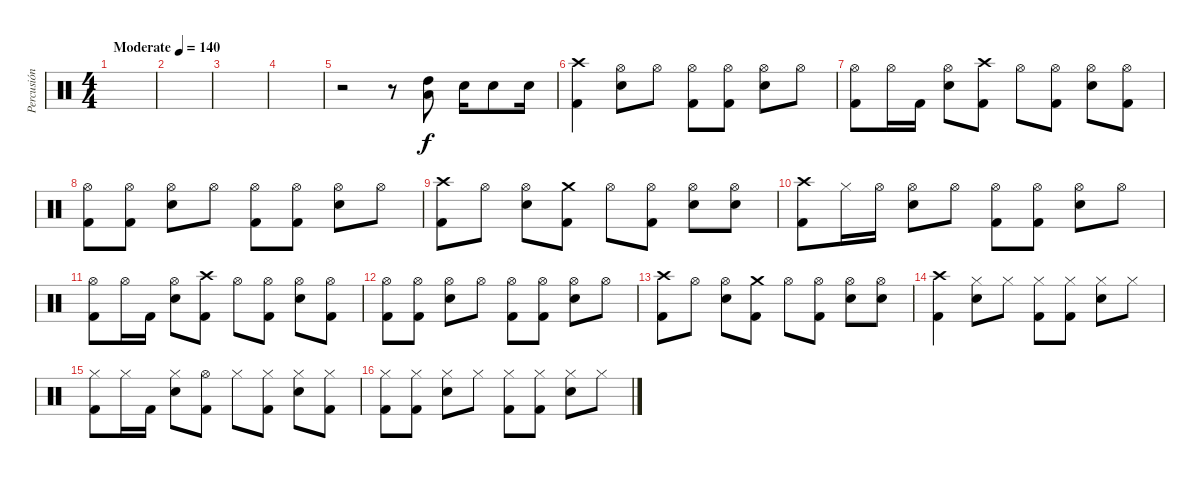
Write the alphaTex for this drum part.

\track ("Percusión" "Percusión") {instrument percussion}
\staff {score}
\articulation defaults
\ts (4 4)
\tempo (140 "Moderate")
\clef neutral
\ks c
|
|
|
|
r.2 r.8 ("Low Tom (hit)" "High Tom (hit)").8 "Snare (hit) 2".16 "Snare (hit) 2".8 "Snare (hit) 2".16 |
("Crash high (hit)" "Kick (hit) 2").4 ("Hi-Hat (open)" "Snare (hit) 2").8 "Hi-Hat (open)".8 ("Hi-Hat (open)" "Kick (hit) 2").8 ("Hi-Hat (open)" "Kick (hit) 2").8 ("Hi-Hat (open)" "Snare (hit) 2").8 "Hi-Hat (open)".8 |
("Hi-Hat (open)" "Kick (hit) 2").8 "Hi-Hat (open)".16 "Kick (hit) 2".16 ("Hi-Hat (open)" "Snare (hit) 2").8 ("Crash high (hit)" "Kick (hit) 2").8 "Hi-Hat (open)".8 ("Hi-Hat (open)" "Kick (hit) 2").8 ("Hi-Hat (open)" "Snare (hit) 2").8 ("Hi-Hat (open)" "Kick (hit) 2").8 |
("Hi-Hat (open)" "Kick (hit) 2").8 ("Hi-Hat (open)" "Kick (hit) 2").8 ("Hi-Hat (open)" "Snare (hit) 2").8 "Hi-Hat (open)".8 ("Hi-Hat (open)" "Kick (hit) 2").8 ("Hi-Hat (open)" "Kick (hit) 2").8 ("Hi-Hat (open)" "Snare (hit) 2").8 "Hi-Hat (open)".8 |
("Crash high (hit)" "Kick (hit) 2").8 "Hi-Hat (open)".8 ("Hi-Hat (open)" "Snare (hit) 2").8 ("Crash medium (hit)" "Kick (hit) 2").8 "Hi-Hat (open)".8 ("Hi-Hat (open)" "Kick (hit) 2").8 ("Hi-Hat (open)" "Snare (hit) 2").8 ("Hi-Hat (open)" "Snare (hit) 2").8 |
("Crash high (hit)" "Kick (hit) 2").8 "Hi-Hat (closed)".16 "Hi-Hat (open)".16 ("Hi-Hat (open)" "Snare (hit) 2").8 "Hi-Hat (open)".8 ("Hi-Hat (open)" "Kick (hit) 2").8 ("Hi-Hat (open)" "Kick (hit) 2").8 ("Hi-Hat (open)" "Snare (hit) 2").8 "Hi-Hat (open)".8 |
("Hi-Hat (open)" "Kick (hit) 2").8 "Hi-Hat (open)".16 "Kick (hit) 2".16 ("Hi-Hat (open)" "Snare (hit) 2").8 ("Crash high (hit)" "Kick (hit) 2").8 "Hi-Hat (open)".8 ("Hi-Hat (open)" "Kick (hit) 2").8 ("Hi-Hat (open)" "Snare (hit) 2").8 ("Hi-Hat (open)" "Kick (hit) 2").8 |
("Hi-Hat (open)" "Kick (hit) 2").8 ("Hi-Hat (open)" "Kick (hit) 2").8 ("Hi-Hat (open)" "Snare (hit) 2").8 "Hi-Hat (open)".8 ("Hi-Hat (open)" "Kick (hit) 2").8 ("Hi-Hat (open)" "Kick (hit) 2").8 ("Hi-Hat (open)" "Snare (hit) 2").8 "Hi-Hat (open)".8 |
("Crash high (hit)" "Kick (hit) 2").8 "Hi-Hat (open)".8 ("Hi-Hat (open)" "Snare (hit) 2").8 ("Crash medium (hit)" "Kick (hit) 2").8 "Hi-Hat (open)".8 ("Hi-Hat (open)" "Kick (hit) 2").8 ("Hi-Hat (open)" "Snare (hit) 2").8 ("Hi-Hat (open)" "Snare (hit) 2").8 |
("Crash high (hit)" "Kick (hit) 2").4 ("Hi-Hat (closed)" "Snare (hit) 2").8 "Hi-Hat (closed)".8 ("Hi-Hat (closed)" "Kick (hit) 2").8 ("Hi-Hat (closed)" "Kick (hit) 2").8 ("Hi-Hat (closed)" "Snare (hit) 2").8 "Hi-Hat (closed)".8 |
("Hi-Hat (closed)" "Kick (hit) 2").8 "Hi-Hat (closed)".16 "Kick (hit) 2".16 ("Hi-Hat (closed)" "Snare (hit) 2").8 ("Hi-Hat (open)" "Kick (hit) 2").8 "Hi-Hat (closed)".8 ("Hi-Hat (closed)" "Kick (hit) 2").8 ("Hi-Hat (closed)" "Snare (hit) 2").8 ("Hi-Hat (closed)" "Kick (hit) 2").8 |
("Hi-Hat (closed)" "Kick (hit) 2").8 ("Hi-Hat (closed)" "Kick (hit) 2").8 ("Hi-Hat (closed)" "Snare (hit) 2").8 "Hi-Hat (closed)".8 ("Hi-Hat (closed)" "Kick (hit) 2").8 ("Hi-Hat (closed)" "Kick (hit) 2").8 ("Hi-Hat (closed)" "Snare (hit) 2").8 "Hi-Hat (closed)".8
